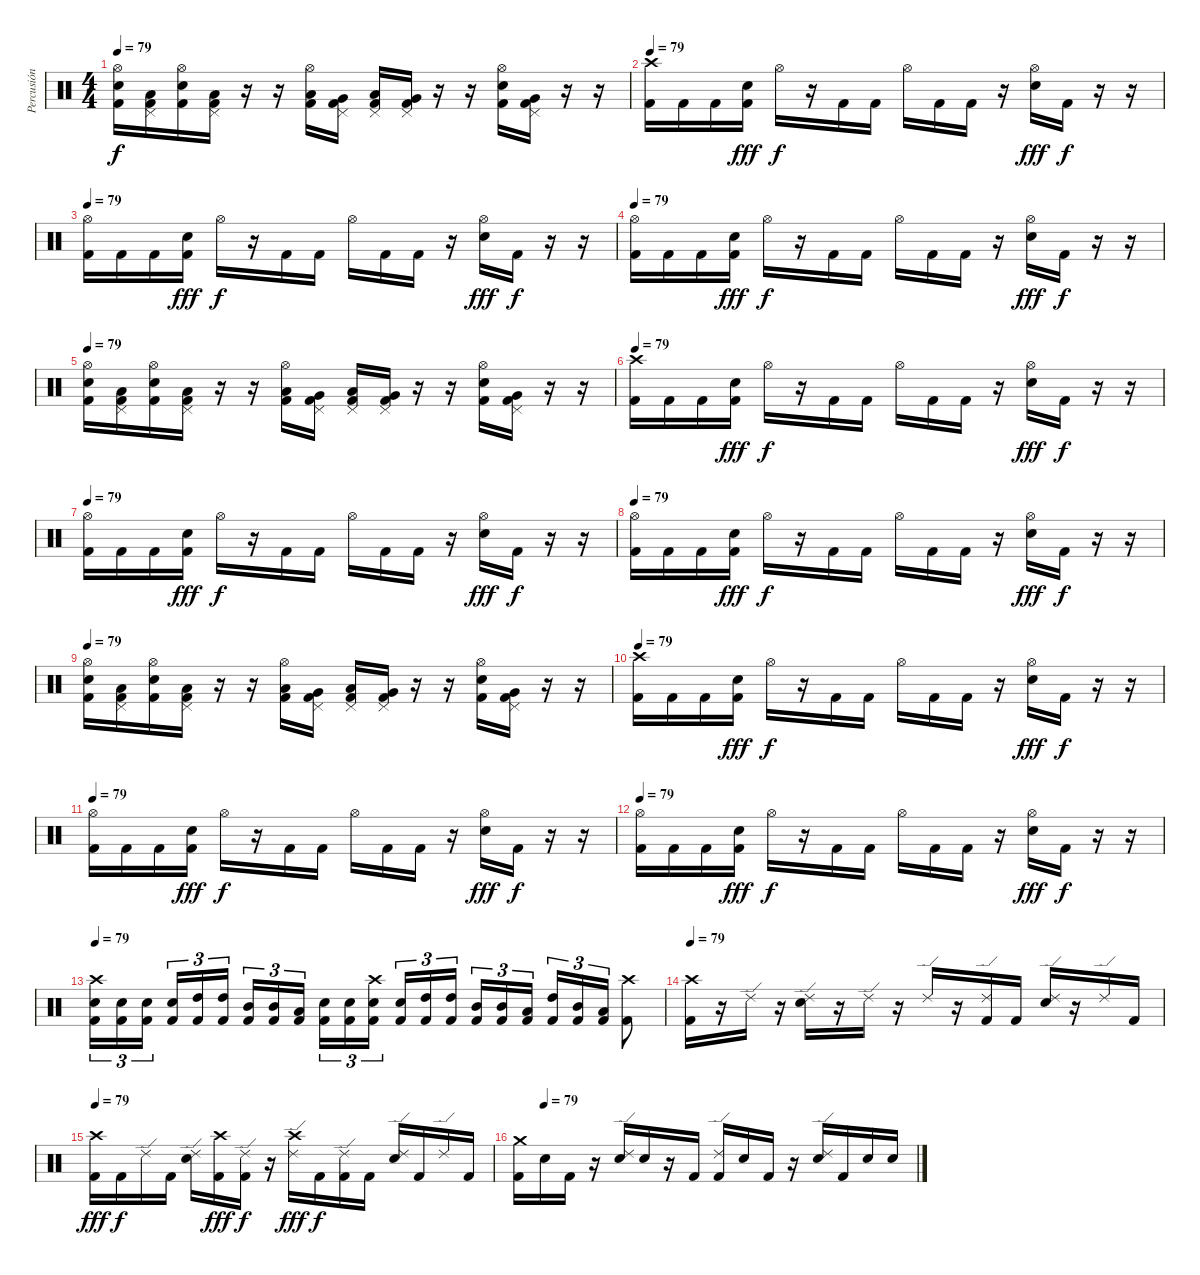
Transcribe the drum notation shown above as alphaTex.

\track ("Percusión" "Percusión") {instrument percussion}
\staff {score}
\articulation defaults
\ts (4 4)
\tempo 79
\clef neutral
\ks c
("Hi-Hat (open)" "Electric Snare (hit)" "Kick (hit) 2").16{dy f} ("Pedal Hi-Hat (hit)" "Low Tom (hit)" "Kick (hit) 2").16 ("Hi-Hat (open)" "Electric Snare (hit)" "Kick (hit) 2").16 ("Pedal Hi-Hat (hit)" "Low Tom (hit)" "Kick (hit) 2").16 r.16 r.16 ("Low Tom (hit)" "Hi-Hat (open)" "Kick (hit) 2").16 ("Very Low Tom (hit)" "Pedal Hi-Hat (hit)" "Kick (hit) 2").16 ("Low Floor Tom (hit)" "Pedal Hi-Hat (hit)" "Kick (hit) 2").16 ("Very Low Tom (hit)" "Pedal Hi-Hat (hit)" "Kick (hit) 2").16 r.16 r.16 ("Hi-Hat (open)" "Electric Snare (hit)" "Kick (hit) 2").16 ("Pedal Hi-Hat (hit)" "Very Low Tom (hit)" "Kick (hit) 2").16 r.16 r.16 |
\tempo 79
("Crash high (hit)" "Kick (hit) 2").16 "Kick (hit) 2".16 "Kick (hit) 2".16 ("Electric Snare (hit)" "Kick (hit) 2").16{dy fff} "Hi-Hat (open)".16{dy f} r.16 "Kick (hit) 2".16 "Kick (hit) 2".16 "Hi-Hat (open)".16 "Kick (hit) 2".16 "Kick (hit) 2".16 r.16 ("Hi-Hat (open)" "Electric Snare (hit)").16{dy fff} "Kick (hit) 2".16{dy f} r.16 r.16 |
\tempo 79
("Hi-Hat (open)" "Kick (hit) 2").16 "Kick (hit) 2".16 "Kick (hit) 2".16 ("Electric Snare (hit)" "Kick (hit) 2").16{dy fff} "Hi-Hat (open)".16{dy f} r.16 "Kick (hit) 2".16 "Kick (hit) 2".16 "Hi-Hat (open)".16 "Kick (hit) 2".16 "Kick (hit) 2".16 r.16 ("Hi-Hat (open)" "Electric Snare (hit)").16{dy fff} "Kick (hit) 2".16{dy f} r.16 r.16 |
\tempo 79
("Hi-Hat (open)" "Kick (hit) 2").16 "Kick (hit) 2".16 "Kick (hit) 2".16 ("Electric Snare (hit)" "Kick (hit) 2").16{dy fff} "Hi-Hat (open)".16{dy f} r.16 "Kick (hit) 2".16 "Kick (hit) 2".16 "Hi-Hat (open)".16 "Kick (hit) 2".16 "Kick (hit) 2".16 r.16 ("Hi-Hat (open)" "Electric Snare (hit)").16{dy fff} "Kick (hit) 2".16{dy f} r.16 r.16 |
\tempo 79
("Hi-Hat (open)" "Electric Snare (hit)" "Kick (hit) 2").16 ("Pedal Hi-Hat (hit)" "Low Tom (hit)" "Kick (hit) 2").16 ("Hi-Hat (open)" "Electric Snare (hit)" "Kick (hit) 2").16 ("Pedal Hi-Hat (hit)" "Low Tom (hit)" "Kick (hit) 2").16 r.16 r.16 ("Low Tom (hit)" "Hi-Hat (open)" "Kick (hit) 2").16 ("Very Low Tom (hit)" "Pedal Hi-Hat (hit)" "Kick (hit) 2").16 ("Low Floor Tom (hit)" "Pedal Hi-Hat (hit)" "Kick (hit) 2").16 ("Very Low Tom (hit)" "Pedal Hi-Hat (hit)" "Kick (hit) 2").16 r.16 r.16 ("Hi-Hat (open)" "Electric Snare (hit)" "Kick (hit) 2").16 ("Pedal Hi-Hat (hit)" "Very Low Tom (hit)" "Kick (hit) 2").16 r.16 r.16 |
\tempo 79
("Crash high (hit)" "Kick (hit) 2").16 "Kick (hit) 2".16 "Kick (hit) 2".16 ("Electric Snare (hit)" "Kick (hit) 2").16{dy fff} "Hi-Hat (open)".16{dy f} r.16 "Kick (hit) 2".16 "Kick (hit) 2".16 "Hi-Hat (open)".16 "Kick (hit) 2".16 "Kick (hit) 2".16 r.16 ("Hi-Hat (open)" "Electric Snare (hit)").16{dy fff} "Kick (hit) 2".16{dy f} r.16 r.16 |
\tempo 79
("Hi-Hat (open)" "Kick (hit) 2").16 "Kick (hit) 2".16 "Kick (hit) 2".16 ("Electric Snare (hit)" "Kick (hit) 2").16{dy fff} "Hi-Hat (open)".16{dy f} r.16 "Kick (hit) 2".16 "Kick (hit) 2".16 "Hi-Hat (open)".16 "Kick (hit) 2".16 "Kick (hit) 2".16 r.16 ("Hi-Hat (open)" "Electric Snare (hit)").16{dy fff} "Kick (hit) 2".16{dy f} r.16 r.16 |
\tempo 79
("Hi-Hat (open)" "Kick (hit) 2").16 "Kick (hit) 2".16 "Kick (hit) 2".16 ("Electric Snare (hit)" "Kick (hit) 2").16{dy fff} "Hi-Hat (open)".16{dy f} r.16 "Kick (hit) 2".16 "Kick (hit) 2".16 "Hi-Hat (open)".16 "Kick (hit) 2".16 "Kick (hit) 2".16 r.16 ("Hi-Hat (open)" "Electric Snare (hit)").16{dy fff} "Kick (hit) 2".16{dy f} r.16 r.16 |
\tempo 79
("Hi-Hat (open)" "Electric Snare (hit)" "Kick (hit) 2").16 ("Pedal Hi-Hat (hit)" "Low Tom (hit)" "Kick (hit) 2").16 ("Hi-Hat (open)" "Electric Snare (hit)" "Kick (hit) 2").16 ("Pedal Hi-Hat (hit)" "Low Tom (hit)" "Kick (hit) 2").16 r.16 r.16 ("Low Tom (hit)" "Hi-Hat (open)" "Kick (hit) 2").16 ("Very Low Tom (hit)" "Pedal Hi-Hat (hit)" "Kick (hit) 2").16 ("Low Floor Tom (hit)" "Pedal Hi-Hat (hit)" "Kick (hit) 2").16 ("Very Low Tom (hit)" "Pedal Hi-Hat (hit)" "Kick (hit) 2").16 r.16 r.16 ("Hi-Hat (open)" "Electric Snare (hit)" "Kick (hit) 2").16 ("Pedal Hi-Hat (hit)" "Very Low Tom (hit)" "Kick (hit) 2").16 r.16 r.16 |
\tempo 79
("Crash high (hit)" "Kick (hit) 2").16 "Kick (hit) 2".16 "Kick (hit) 2".16 ("Electric Snare (hit)" "Kick (hit) 2").16{dy fff} "Hi-Hat (open)".16{dy f} r.16 "Kick (hit) 2".16 "Kick (hit) 2".16 "Hi-Hat (open)".16 "Kick (hit) 2".16 "Kick (hit) 2".16 r.16 ("Hi-Hat (open)" "Electric Snare (hit)").16{dy fff} "Kick (hit) 2".16{dy f} r.16 r.16 |
\tempo 79
("Hi-Hat (open)" "Kick (hit) 2").16 "Kick (hit) 2".16 "Kick (hit) 2".16 ("Electric Snare (hit)" "Kick (hit) 2").16{dy fff} "Hi-Hat (open)".16{dy f} r.16 "Kick (hit) 2".16 "Kick (hit) 2".16 "Hi-Hat (open)".16 "Kick (hit) 2".16 "Kick (hit) 2".16 r.16 ("Hi-Hat (open)" "Electric Snare (hit)").16{dy fff} "Kick (hit) 2".16{dy f} r.16 r.16 |
\tempo 79
("Hi-Hat (open)" "Kick (hit) 2").16 "Kick (hit) 2".16 "Kick (hit) 2".16 ("Electric Snare (hit)" "Kick (hit) 2").16{dy fff} "Hi-Hat (open)".16{dy f} r.16 "Kick (hit) 2".16 "Kick (hit) 2".16 "Hi-Hat (open)".16 "Kick (hit) 2".16 "Kick (hit) 2".16 r.16 ("Hi-Hat (open)" "Electric Snare (hit)").16{dy fff} "Kick (hit) 2".16{dy f} r.16 r.16 |
\tempo 79
("Crash high (hit)" "Electric Snare (hit)" "Kick (hit) 2").16{tu (3 2)} ("Electric Snare (hit)" "Kick (hit) 2").16{tu (3 2)} ("Electric Snare (hit)" "Kick (hit) 2").16{tu (3 2)} ("Electric Snare (hit)" "Kick (hit) 2").16{tu (3 2)} ("High Tom (hit)" "Kick (hit) 2").16{tu (3 2)} ("High Tom (hit)" "Kick (hit) 2").16{tu (3 2)} ("Mid Tom (hit)" "Kick (hit) 2").16{tu (3 2)} ("Mid Tom (hit)" "Kick (hit) 2").16{tu (3 2)} ("Low Tom (hit)" "Kick (hit) 2").16{tu (3 2)} ("Electric Snare (hit)" "Kick (hit) 2").16{tu (3 2)} ("Electric Snare (hit)" "Kick (hit) 2").16{tu (3 2)} ("Crash high (hit)" "Electric Snare (hit)" "Kick (hit) 2").16{tu (3 2)} ("Electric Snare (hit)" "Kick (hit) 2").16{tu (3 2)} ("High Tom (hit)" "Kick (hit) 2").16{tu (3 2)} ("High Tom (hit)" "Kick (hit) 2").16{tu (3 2)} ("Mid Tom (hit)" "Kick (hit) 2").16{tu (3 2)} ("Mid Tom (hit)" "Kick (hit) 2").16{tu (3 2)} ("Low Tom (hit)" "Kick (hit) 2").16{tu (3 2)} ("High Tom (hit)" "Kick (hit) 2").16{tu (3 2)} ("Mid Tom (hit)" "Kick (hit) 2").16{tu (3 2)} ("Low Tom (hit)" "Kick (hit) 2").16{tu (3 2)} ("Crash high (hit)" "Kick (hit) 2").8 |
\tempo 79
("Crash high (hit)" "Kick (hit) 2").16 r.16 "Ride (edge) 2".16 r.16 ("Ride (edge) 2" "Electric Snare (hit)").16 r.16 "Ride (edge) 2".16 r.16 "Ride (edge) 2".16 r.16 ("Ride (edge) 2" "Kick (hit) 2").16 "Kick (hit) 2".16 ("Ride (edge) 2" "Electric Snare (hit)").16 r.16 "Ride (edge) 2".16 "Kick (hit) 2".16 |
\tempo 79
("Crash high (hit)" "Kick (hit) 2").16{dy fff} "Kick (hit) 2".16{dy f} "Ride (edge) 2".16 "Kick (hit) 2".16 ("Ride (edge) 2" "Electric Snare (hit)").16 ("Crash high (hit)" "Kick (hit) 2").16{dy fff} ("Ride (edge) 2" "Kick (hit) 2").16{dy f} r.16 ("Crash high (hit)" "Ride (edge) 2").16{dy fff} "Kick (hit) 2".16{dy f} ("Ride (edge) 2" "Kick (hit) 2").16 "Kick (hit) 2".16 ("Ride (edge) 2" "Electric Snare (hit)").16 "Kick (hit) 2".16 "Ride (edge) 2".16 "Kick (hit) 2".16 |
\tempo (79 0.0625)
("Crash medium (hit)" "Kick (hit) 2").16 "Electric Snare (hit)".16 "Kick (hit) 2".16 r.16 ("Ride (edge) 2" "Electric Snare (hit)").16 "Electric Snare (hit)".16 r.16 "Kick (hit) 2".16 ("Ride (edge) 2" "Kick (hit) 2").16 "Electric Snare (hit)".16 "Kick (hit) 2".16 r.16 ("Ride (edge) 2" "Electric Snare (hit)").16 "Kick (hit) 2".16 "Electric Snare (hit)".16 "Electric Snare (hit)".16
